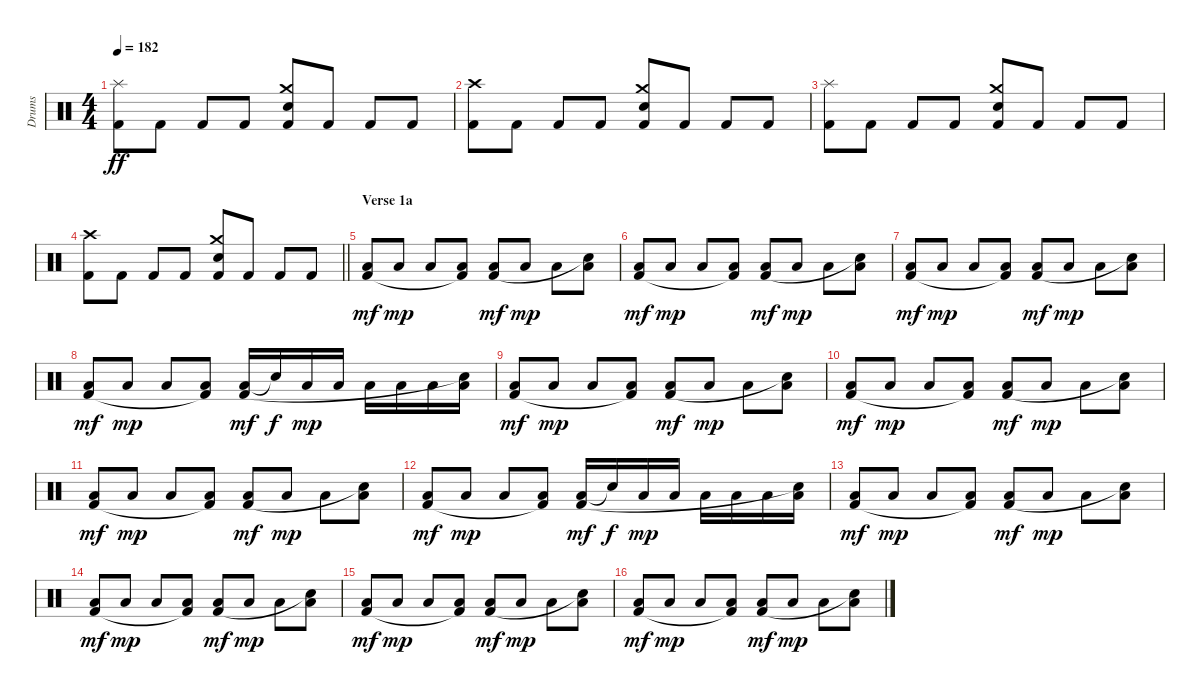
\track ("Drums" "Drums") {instrument percussion}
\staff {score}
\articulation defaults
\ts (4 4)
\tempo 182
\clef neutral
\ks c
("Splash (hit)" "Kick (hit) 2").8{dy ff} "Kick (hit) 2".8 "Kick (hit) 2".8 "Kick (hit) 2".8 ("Crash medium (hit)" "Snare (hit) 2" "Kick (hit) 2").8 "Kick (hit) 2".8 "Kick (hit) 2".8 "Kick (hit) 2".8 |
("Crash high (hit)" "Kick (hit) 2").8 "Kick (hit) 2".8 "Kick (hit) 2".8 "Kick (hit) 2".8 ("Crash medium (hit)" "Snare (hit) 2" "Kick (hit) 2").8 "Kick (hit) 2".8 "Kick (hit) 2".8 "Kick (hit) 2".8 |
("Splash (hit)" "Kick (hit) 2").8 "Kick (hit) 2".8 "Kick (hit) 2".8 "Kick (hit) 2".8 ("Crash medium (hit)" "Snare (hit) 2" "Kick (hit) 2").8 "Kick (hit) 2".8 "Kick (hit) 2".8 "Kick (hit) 2".8 |
\barLineRight lightlight
("Crash high (hit)" "Kick (hit) 2").8 "Kick (hit) 2".8 "Kick (hit) 2".8 "Kick (hit) 2".8 ("Crash medium (hit)" "Snare (hit) 2" "Kick (hit) 2").8 "Kick (hit) 2".8 "Kick (hit) 2".8 "Kick (hit) 2".8 |
\section ("" "Verse 1a")
("Low Floor Tom (hit)" "Kick (hit) 2").8{dy mf} "Low Floor Tom (hit)".8{dy mp} "Low Floor Tom (hit)".8 ("Low Floor Tom (hit)" "Kick (hit) 2"{t}).8 ("Low Floor Tom (hit)" "Kick (hit) 2").8{dy mf} "Low Floor Tom (hit)".8{dy mp} "Low Floor Tom (hit)".8 ("Low Floor Tom (hit)" "Snare (hit)"{t}).8 |
("Low Floor Tom (hit)" "Kick (hit) 2").8{dy mf} "Low Floor Tom (hit)".8{dy mp} "Low Floor Tom (hit)".8 ("Low Floor Tom (hit)" "Kick (hit) 2"{t}).8 ("Low Floor Tom (hit)" "Kick (hit) 2").8{dy mf} "Low Floor Tom (hit)".8{dy mp} "Low Floor Tom (hit)".8 ("Low Floor Tom (hit)" "Snare (hit)"{t}).8 |
("Low Floor Tom (hit)" "Kick (hit) 2").8{dy mf} "Low Floor Tom (hit)".8{dy mp} "Low Floor Tom (hit)".8 ("Low Floor Tom (hit)" "Kick (hit) 2"{t}).8 ("Low Floor Tom (hit)" "Kick (hit) 2").8{dy mf} "Low Floor Tom (hit)".8{dy mp} "Low Floor Tom (hit)".8 ("Low Floor Tom (hit)" "Snare (hit)"{t}).8 |
("Low Floor Tom (hit)" "Kick (hit) 2").8{dy mf} "Low Floor Tom (hit)".8{dy mp} "Low Floor Tom (hit)".8 ("Low Floor Tom (hit)" "Kick (hit) 2"{t}).8 ("Low Floor Tom (hit)" "Kick (hit) 2").16{dy mf} "Snare (hit)"{t}.16{dy f} "Low Floor Tom (hit)".16{dy mp} "Low Floor Tom (hit)".16 "Low Floor Tom (hit)".16 "Low Floor Tom (hit)".16 "Low Floor Tom (hit)".16 ("Low Floor Tom (hit)" "Snare (hit)"{t}).16 |
("Low Floor Tom (hit)" "Kick (hit) 2").8{dy mf} "Low Floor Tom (hit)".8{dy mp} "Low Floor Tom (hit)".8 ("Low Floor Tom (hit)" "Kick (hit) 2"{t}).8 ("Low Floor Tom (hit)" "Kick (hit) 2").8{dy mf} "Low Floor Tom (hit)".8{dy mp} "Low Floor Tom (hit)".8 ("Low Floor Tom (hit)" "Snare (hit)"{t}).8 |
("Low Floor Tom (hit)" "Kick (hit) 2").8{dy mf} "Low Floor Tom (hit)".8{dy mp} "Low Floor Tom (hit)".8 ("Low Floor Tom (hit)" "Kick (hit) 2"{t}).8 ("Low Floor Tom (hit)" "Kick (hit) 2").8{dy mf} "Low Floor Tom (hit)".8{dy mp} "Low Floor Tom (hit)".8 ("Low Floor Tom (hit)" "Snare (hit)"{t}).8 |
("Low Floor Tom (hit)" "Kick (hit) 2").8{dy mf} "Low Floor Tom (hit)".8{dy mp} "Low Floor Tom (hit)".8 ("Low Floor Tom (hit)" "Kick (hit) 2"{t}).8 ("Low Floor Tom (hit)" "Kick (hit) 2").8{dy mf} "Low Floor Tom (hit)".8{dy mp} "Low Floor Tom (hit)".8 ("Low Floor Tom (hit)" "Snare (hit)"{t}).8 |
("Low Floor Tom (hit)" "Kick (hit) 2").8{dy mf} "Low Floor Tom (hit)".8{dy mp} "Low Floor Tom (hit)".8 ("Low Floor Tom (hit)" "Kick (hit) 2"{t}).8 ("Low Floor Tom (hit)" "Kick (hit) 2").16{dy mf} "Snare (hit)"{t}.16{dy f} "Low Floor Tom (hit)".16{dy mp} "Low Floor Tom (hit)".16 "Low Floor Tom (hit)".16 "Low Floor Tom (hit)".16 "Low Floor Tom (hit)".16 ("Low Floor Tom (hit)" "Snare (hit)"{t}).16 |
("Low Floor Tom (hit)" "Kick (hit) 2").8{dy mf} "Low Floor Tom (hit)".8{dy mp} "Low Floor Tom (hit)".8 ("Low Floor Tom (hit)" "Kick (hit) 2"{t}).8 ("Low Floor Tom (hit)" "Kick (hit) 2").8{dy mf} "Low Floor Tom (hit)".8{dy mp} "Low Floor Tom (hit)".8 ("Low Floor Tom (hit)" "Snare (hit)"{t}).8 |
("Low Floor Tom (hit)" "Kick (hit) 2").8{dy mf} "Low Floor Tom (hit)".8{dy mp} "Low Floor Tom (hit)".8 ("Low Floor Tom (hit)" "Kick (hit) 2"{t}).8 ("Low Floor Tom (hit)" "Kick (hit) 2").8{dy mf} "Low Floor Tom (hit)".8{dy mp} "Low Floor Tom (hit)".8 ("Low Floor Tom (hit)" "Snare (hit)"{t}).8 |
("Low Floor Tom (hit)" "Kick (hit) 2").8{dy mf} "Low Floor Tom (hit)".8{dy mp} "Low Floor Tom (hit)".8 ("Low Floor Tom (hit)" "Kick (hit) 2"{t}).8 ("Low Floor Tom (hit)" "Kick (hit) 2").8{dy mf} "Low Floor Tom (hit)".8{dy mp} "Low Floor Tom (hit)".8 ("Low Floor Tom (hit)" "Snare (hit)"{t}).8 |
("Low Floor Tom (hit)" "Kick (hit) 2").8{dy mf} "Low Floor Tom (hit)".8{dy mp} "Low Floor Tom (hit)".8 ("Low Floor Tom (hit)" "Kick (hit) 2"{t}).8 ("Low Floor Tom (hit)" "Kick (hit) 2").8{dy mf} "Low Floor Tom (hit)".8{dy mp} "Low Floor Tom (hit)".8 ("Low Floor Tom (hit)" "Snare (hit)"{t}).8
